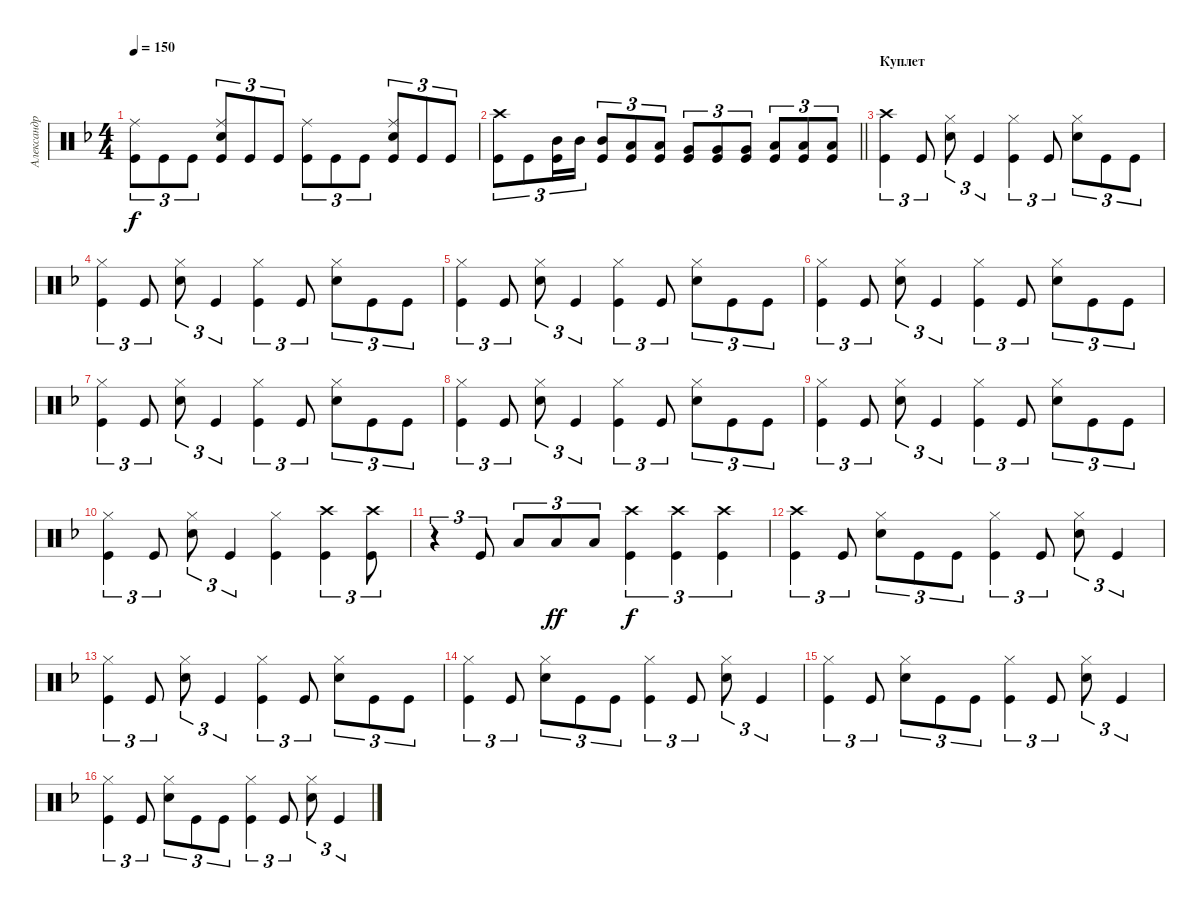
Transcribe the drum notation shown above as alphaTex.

\track ("Александр Манякин" "Александр ") {instrument percussion}
\staff {score}
\articulation defaults
\ts (4 4)
\tempo 150
\clef neutral
\ks dminor
("Kick (hit)" "Ride (middle)").8{tu (3 2) dy f} "Kick (hit)".8{tu (3 2)} "Kick (hit)".8{tu (3 2)} ("Snare (hit) 2" "Kick (hit)" "Ride (middle)").8{tu (3 2)} "Kick (hit)".8{tu (3 2)} "Kick (hit)".8{tu (3 2)} ("Kick (hit)" "Ride (middle)").8{tu (3 2)} "Kick (hit)".8{tu (3 2)} "Kick (hit)".8{tu (3 2)} ("Kick (hit)" "Snare (hit) 2" "Ride (middle)").8{tu (3 2)} "Kick (hit)".8{tu (3 2)} "Kick (hit)".8{tu (3 2)} |
\barLineRight lightlight
("Kick (hit)" "Crash high (hit)").8{tu (3 2)} "Kick (hit)".8{tu (3 2)} ("Mid Tom (hit)" "Kick (hit)").16{tu (3 2)} "Mid Tom (hit)".16{tu (3 2)} ("Mid Tom (hit)" "Kick (hit)").8{tu (3 2)} ("Low Tom (hit)" "Kick (hit)").8{tu (3 2)} ("Low Tom (hit)" "Kick (hit)").8{tu (3 2)} ("Kick (hit)" "Very Low Tom (hit)").8{tu (3 2)} ("Kick (hit)" "Very Low Tom (hit)").8{tu (3 2)} ("Kick (hit)" "Very Low Tom (hit)").8{tu (3 2)} ("Kick (hit)" "Low Floor Tom (hit)").8{tu (3 2)} ("Kick (hit)" "Low Floor Tom (hit)").8{tu (3 2)} ("Kick (hit)" "Low Floor Tom (hit)").8{tu (3 2)} |
\section ("" "Куплет")
("Kick (hit)" "Crash high (hit)").4{tu (3 2)} "Kick (hit)".8{tu (3 2)} ("Snare (hit) 2" "Hi-Hat (closed)").8{tu (3 2)} "Kick (hit)".4{tu (3 2)} ("Kick (hit)" "Hi-Hat (closed)").4{tu (3 2)} "Kick (hit)".8{tu (3 2)} ("Snare (hit) 2" "Hi-Hat (closed)").8{tu (3 2)} "Kick (hit)".8{tu (3 2)} "Kick (hit)".8{tu (3 2)} |
("Kick (hit)" "Hi-Hat (closed)").4{tu (3 2)} "Kick (hit)".8{tu (3 2)} ("Snare (hit) 2" "Hi-Hat (closed)").8{tu (3 2)} "Kick (hit)".4{tu (3 2)} ("Kick (hit)" "Hi-Hat (closed)").4{tu (3 2)} "Kick (hit)".8{tu (3 2)} ("Snare (hit) 2" "Hi-Hat (closed)").8{tu (3 2)} "Kick (hit)".8{tu (3 2)} "Kick (hit)".8{tu (3 2)} |
("Kick (hit)" "Hi-Hat (closed)").4{tu (3 2)} "Kick (hit)".8{tu (3 2)} ("Snare (hit) 2" "Hi-Hat (closed)").8{tu (3 2)} "Kick (hit)".4{tu (3 2)} ("Kick (hit)" "Hi-Hat (closed)").4{tu (3 2)} "Kick (hit)".8{tu (3 2)} ("Snare (hit) 2" "Hi-Hat (closed)").8{tu (3 2)} "Kick (hit)".8{tu (3 2)} "Kick (hit)".8{tu (3 2)} |
("Kick (hit)" "Hi-Hat (closed)").4{tu (3 2)} "Kick (hit)".8{tu (3 2)} ("Snare (hit) 2" "Hi-Hat (closed)").8{tu (3 2)} "Kick (hit)".4{tu (3 2)} ("Kick (hit)" "Hi-Hat (closed)").4{tu (3 2)} "Kick (hit)".8{tu (3 2)} ("Snare (hit) 2" "Hi-Hat (closed)").8{tu (3 2)} "Kick (hit)".8{tu (3 2)} "Kick (hit)".8{tu (3 2)} |
("Kick (hit)" "Hi-Hat (closed)").4{tu (3 2)} "Kick (hit)".8{tu (3 2)} ("Snare (hit) 2" "Hi-Hat (closed)").8{tu (3 2)} "Kick (hit)".4{tu (3 2)} ("Kick (hit)" "Hi-Hat (closed)").4{tu (3 2)} "Kick (hit)".8{tu (3 2)} ("Snare (hit) 2" "Hi-Hat (closed)").8{tu (3 2)} "Kick (hit)".8{tu (3 2)} "Kick (hit)".8{tu (3 2)} |
("Kick (hit)" "Hi-Hat (closed)").4{tu (3 2)} "Kick (hit)".8{tu (3 2)} ("Snare (hit) 2" "Hi-Hat (closed)").8{tu (3 2)} "Kick (hit)".4{tu (3 2)} ("Kick (hit)" "Hi-Hat (closed)").4{tu (3 2)} "Kick (hit)".8{tu (3 2)} ("Snare (hit) 2" "Hi-Hat (closed)").8{tu (3 2)} "Kick (hit)".8{tu (3 2)} "Kick (hit)".8{tu (3 2)} |
("Kick (hit)" "Hi-Hat (closed)").4{tu (3 2)} "Kick (hit)".8{tu (3 2)} ("Snare (hit) 2" "Hi-Hat (closed)").8{tu (3 2)} "Kick (hit)".4{tu (3 2)} ("Kick (hit)" "Hi-Hat (closed)").4{tu (3 2)} "Kick (hit)".8{tu (3 2)} ("Snare (hit) 2" "Hi-Hat (closed)").8{tu (3 2)} "Kick (hit)".8{tu (3 2)} "Kick (hit)".8{tu (3 2)} |
("Kick (hit)" "Hi-Hat (closed)").4{tu (3 2)} "Kick (hit)".8{tu (3 2)} ("Snare (hit) 2" "Hi-Hat (closed)").8{tu (3 2)} "Kick (hit)".4{tu (3 2)} ("Kick (hit)" "Hi-Hat (closed)").4 ("Kick (hit)" "Crash high (hit)").4{tu (3 2)} ("Kick (hit)" "Crash high (hit)").8{tu (3 2)} |
r.4{tu (3 2)} "Kick (hit)".8{tu (3 2)} "Low Tom (hit)".8{tu (3 2)} "Low Tom (hit)".8{tu (3 2) dy ff} "Low Tom (hit)".8{tu (3 2)} ("Kick (hit)" "Crash high (hit)").4{tu (3 2) dy f} ("Kick (hit)" "Crash high (hit)").4{tu (3 2)} ("Kick (hit)" "Crash high (hit)").4{tu (3 2)} |
("Kick (hit)" "Crash high (hit)").4{tu (3 2)} "Kick (hit)".8{tu (3 2)} ("Snare (hit) 2" "Hi-Hat (closed)").8{tu (3 2)} "Kick (hit)".8{tu (3 2)} "Kick (hit)".8{tu (3 2)} ("Kick (hit)" "Hi-Hat (closed)").4{tu (3 2)} "Kick (hit)".8{tu (3 2)} ("Snare (hit) 2" "Hi-Hat (closed)").8{tu (3 2)} "Kick (hit)".4{tu (3 2)} |
("Kick (hit)" "Hi-Hat (closed)").4{tu (3 2)} "Kick (hit)".8{tu (3 2)} ("Snare (hit) 2" "Hi-Hat (closed)").8{tu (3 2)} "Kick (hit)".4{tu (3 2)} ("Kick (hit)" "Hi-Hat (closed)").4{tu (3 2)} "Kick (hit)".8{tu (3 2)} ("Snare (hit) 2" "Hi-Hat (closed)").8{tu (3 2)} "Kick (hit)".8{tu (3 2)} "Kick (hit)".8{tu (3 2)} |
("Kick (hit)" "Hi-Hat (closed)").4{tu (3 2)} "Kick (hit)".8{tu (3 2)} ("Snare (hit) 2" "Hi-Hat (closed)").8{tu (3 2)} "Kick (hit)".8{tu (3 2)} "Kick (hit)".8{tu (3 2)} ("Kick (hit)" "Hi-Hat (closed)").4{tu (3 2)} "Kick (hit)".8{tu (3 2)} ("Snare (hit) 2" "Hi-Hat (closed)").8{tu (3 2)} "Kick (hit)".4{tu (3 2)} |
("Kick (hit)" "Hi-Hat (closed)").4{tu (3 2)} "Kick (hit)".8{tu (3 2)} ("Snare (hit) 2" "Hi-Hat (closed)").8{tu (3 2)} "Kick (hit)".8{tu (3 2)} "Kick (hit)".8{tu (3 2)} ("Kick (hit)" "Hi-Hat (closed)").4{tu (3 2)} "Kick (hit)".8{tu (3 2)} ("Snare (hit) 2" "Hi-Hat (closed)").8{tu (3 2)} "Kick (hit)".4{tu (3 2)} |
("Kick (hit)" "Hi-Hat (closed)").4{tu (3 2)} "Kick (hit)".8{tu (3 2)} ("Snare (hit) 2" "Hi-Hat (closed)").8{tu (3 2)} "Kick (hit)".8{tu (3 2)} "Kick (hit)".8{tu (3 2)} ("Kick (hit)" "Hi-Hat (closed)").4{tu (3 2)} "Kick (hit)".8{tu (3 2)} ("Snare (hit) 2" "Hi-Hat (closed)").8{tu (3 2)} "Kick (hit)".4{tu (3 2)}
